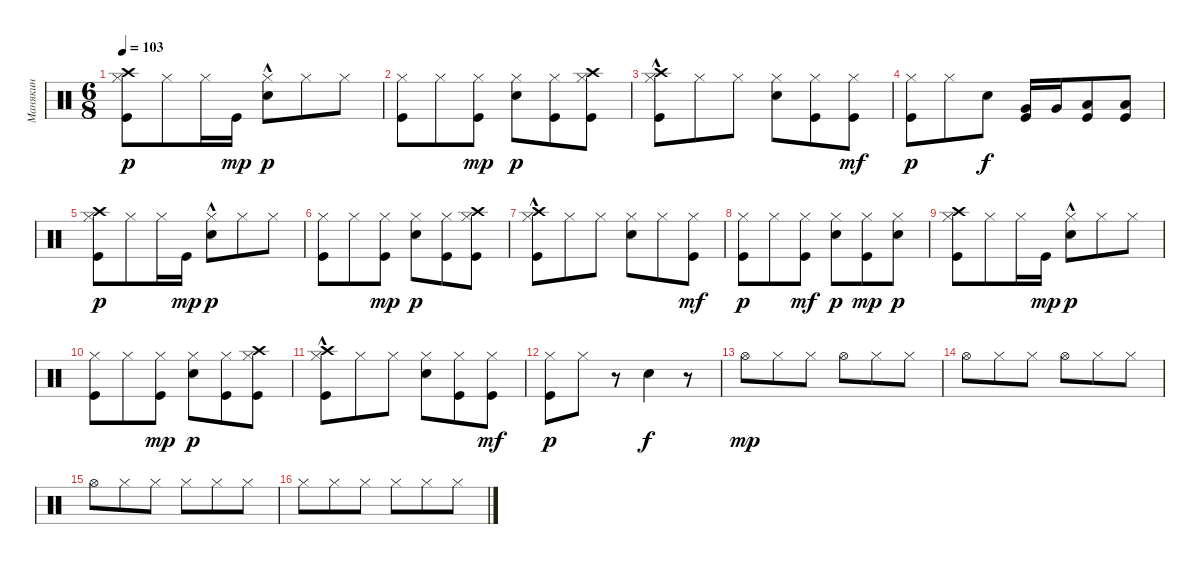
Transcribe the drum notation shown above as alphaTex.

\track ("Манякин" "Манякин") {instrument percussion}
\staff {score}
\articulation defaults
\ts (6 8)
\tempo 103
\clef neutral
\ks c
("Crash high (hit)" "Hi-Hat (closed)" "Kick (hit)").8{dy p} "Hi-Hat (closed)".8 "Hi-Hat (closed)".16 "Kick (hit)".16{dy mp} ("Hi-Hat (closed)" "Electric Snare (hit)"{hac}).8{dy p} "Hi-Hat (closed)".8 "Hi-Hat (closed)".8 |
("Hi-Hat (closed)" "Kick (hit)").8 "Hi-Hat (closed)".8 ("Hi-Hat (closed)" "Kick (hit)").8{dy mp} ("Hi-Hat (closed)" "Electric Snare (hit)").8{dy p} ("Hi-Hat (closed)" "Kick (hit)").8 ("Crash high (hit)" "Hi-Hat (closed)" "Kick (hit)").8 |
("Crash high (hit)" "Hi-Hat (closed)" "Kick (hit)"{hac}).8 "Hi-Hat (closed)".8 "Hi-Hat (closed)".8 ("Hi-Hat (closed)" "Electric Snare (hit)").8 ("Hi-Hat (closed)" "Kick (hit)").8 ("Hi-Hat (closed)" "Kick (hit)").8{dy mf} |
("Hi-Hat (closed)" "Kick (hit)").8{dy p} "Hi-Hat (closed)".8 "Electric Snare (hit)".8{dy f} ("Kick (hit)" "Very Low Tom (hit)").16 "Very Low Tom (hit)".16 ("Kick (hit)" "Low Floor Tom (hit)").8 ("Kick (hit)" "Low Floor Tom (hit)").8 |
("Crash high (hit)" "Hi-Hat (closed)" "Kick (hit)").8{dy p} "Hi-Hat (closed)".8 "Hi-Hat (closed)".16 "Kick (hit)".16{dy mp} ("Hi-Hat (closed)" "Electric Snare (hit)"{hac}).8{dy p} "Hi-Hat (closed)".8 "Hi-Hat (closed)".8 |
("Hi-Hat (closed)" "Kick (hit)").8 "Hi-Hat (closed)".8 ("Hi-Hat (closed)" "Kick (hit)").8{dy mp} ("Hi-Hat (closed)" "Electric Snare (hit)").8{dy p} ("Hi-Hat (closed)" "Kick (hit)").8 ("Crash high (hit)" "Hi-Hat (closed)" "Kick (hit)").8 |
("Crash high (hit)" "Hi-Hat (closed)" "Kick (hit)"{hac}).8 "Hi-Hat (closed)".8 "Hi-Hat (closed)".8 ("Hi-Hat (closed)" "Electric Snare (hit)").8 "Hi-Hat (closed)".8 ("Hi-Hat (closed)" "Kick (hit)").8{dy mf} |
("Hi-Hat (closed)" "Kick (hit)").8{dy p} "Hi-Hat (closed)".8 ("Hi-Hat (closed)" "Kick (hit)").8{dy mf} ("Hi-Hat (closed)" "Electric Snare (hit)").8{dy p} ("Hi-Hat (closed)" "Kick (hit)").8{dy mp} ("Hi-Hat (closed)" "Electric Snare (hit)").8{dy p} |
("Crash high (hit)" "Hi-Hat (closed)" "Kick (hit)").8 "Hi-Hat (closed)".8 "Hi-Hat (closed)".16 "Kick (hit)".16{dy mp} ("Hi-Hat (closed)" "Electric Snare (hit)"{hac}).8{dy p} "Hi-Hat (closed)".8 "Hi-Hat (closed)".8 |
("Hi-Hat (closed)" "Kick (hit)").8 "Hi-Hat (closed)".8 ("Hi-Hat (closed)" "Kick (hit)").8{dy mp} ("Hi-Hat (closed)" "Electric Snare (hit)").8{dy p} ("Hi-Hat (closed)" "Kick (hit)").8 ("Crash high (hit)" "Hi-Hat (closed)" "Kick (hit)").8 |
("Crash high (hit)" "Hi-Hat (closed)" "Kick (hit)"{hac}).8 "Hi-Hat (closed)".8 "Hi-Hat (closed)".8 ("Hi-Hat (closed)" "Electric Snare (hit)").8 ("Hi-Hat (closed)" "Kick (hit)").8 ("Hi-Hat (closed)" "Kick (hit)").8{dy mf} |
("Hi-Hat (closed)" "Kick (hit)").8{dy p} "Hi-Hat (closed)".8 r.8 "Electric Snare (hit)".4{dy f} r.8 |
"Hi-Hat (open)".8{dy mp} "Hi-Hat (closed)".8 "Hi-Hat (closed)".8 "Hi-Hat (open)".8 "Hi-Hat (closed)".8 "Hi-Hat (closed)".8 |
"Hi-Hat (open)".8 "Hi-Hat (closed)".8 "Hi-Hat (closed)".8 "Hi-Hat (open)".8 "Hi-Hat (closed)".8 "Hi-Hat (closed)".8 |
"Hi-Hat (open)".8 "Hi-Hat (closed)".8 "Hi-Hat (closed)".8 "Hi-Hat (closed)".8 "Hi-Hat (closed)".8 "Hi-Hat (closed)".8 |
"Hi-Hat (closed)".8 "Hi-Hat (closed)".8 "Hi-Hat (closed)".8 "Hi-Hat (closed)".8 "Hi-Hat (closed)".8 "Hi-Hat (closed)".8
